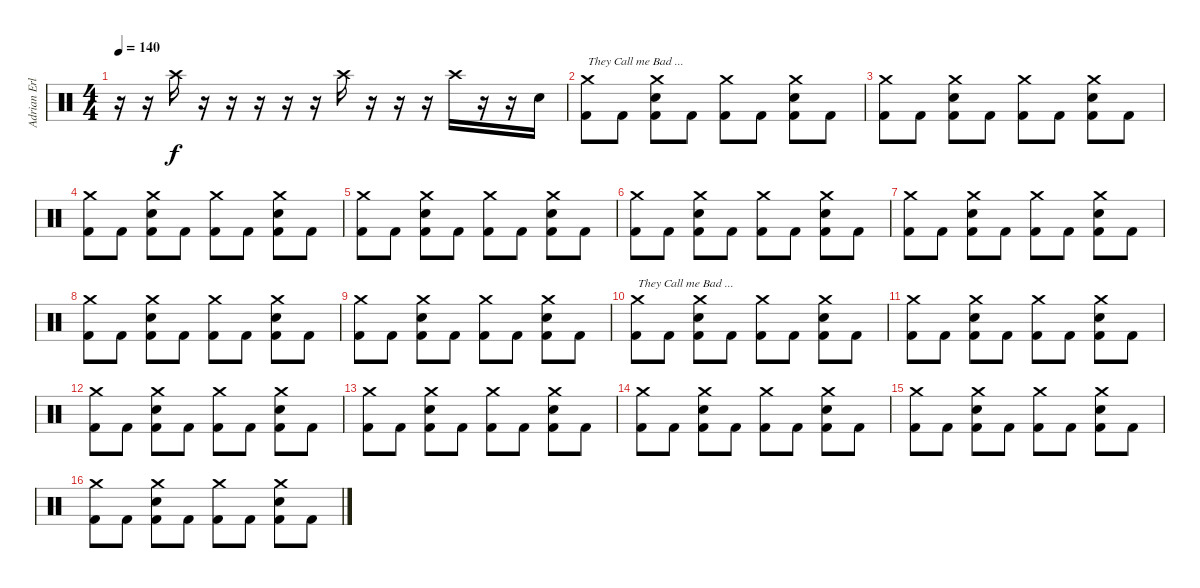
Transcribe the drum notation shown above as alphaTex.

\track ("Adrian Erlandsson" "Adrian Erl") {instrument percussion}
\staff {score}
\articulation defaults
\ts (4 4)
\tempo 140
\clef neutral
\ks c
r.16{dy f} r.16 "Crash high (hit)".16 r.16 r.16 r.16 r.16 r.16 "Crash high (hit)".16 r.16 r.16 r.16 "Crash high (hit)".16 r.16 r.16 "Electric Snare (hit)".16 |
("Kick (hit) 2" "Crash medium (hit)").8{txt "They Call me Bad ..."} "Kick (hit) 2".8 ("Kick (hit) 2" "Crash medium (hit)" "Electric Snare (hit)").8 "Kick (hit) 2".8 ("Kick (hit) 2" "Crash medium (hit)").8 "Kick (hit) 2".8 ("Kick (hit) 2" "Crash medium (hit)" "Electric Snare (hit)").8 "Kick (hit) 2".8 |
("Kick (hit) 2" "Crash medium (hit)").8 "Kick (hit) 2".8 ("Kick (hit) 2" "Crash medium (hit)" "Electric Snare (hit)").8 "Kick (hit) 2".8 ("Kick (hit) 2" "Crash medium (hit)").8 "Kick (hit) 2".8 ("Kick (hit) 2" "Crash medium (hit)" "Electric Snare (hit)").8 "Kick (hit) 2".8 |
("Kick (hit) 2" "Crash medium (hit)").8 "Kick (hit) 2".8 ("Kick (hit) 2" "Crash medium (hit)" "Electric Snare (hit)").8 "Kick (hit) 2".8 ("Kick (hit) 2" "Crash medium (hit)").8 "Kick (hit) 2".8 ("Kick (hit) 2" "Crash medium (hit)" "Electric Snare (hit)").8 "Kick (hit) 2".8 |
("Kick (hit) 2" "Crash medium (hit)").8 "Kick (hit) 2".8 ("Kick (hit) 2" "Crash medium (hit)" "Electric Snare (hit)").8 "Kick (hit) 2".8 ("Kick (hit) 2" "Crash medium (hit)").8 "Kick (hit) 2".8 ("Kick (hit) 2" "Crash medium (hit)" "Electric Snare (hit)").8 "Kick (hit) 2".8 |
("Kick (hit) 2" "Crash medium (hit)").8 "Kick (hit) 2".8 ("Kick (hit) 2" "Crash medium (hit)" "Electric Snare (hit)").8 "Kick (hit) 2".8 ("Kick (hit) 2" "Crash medium (hit)").8 "Kick (hit) 2".8 ("Kick (hit) 2" "Crash medium (hit)" "Electric Snare (hit)").8 "Kick (hit) 2".8 |
("Kick (hit) 2" "Crash medium (hit)").8 "Kick (hit) 2".8 ("Kick (hit) 2" "Crash medium (hit)" "Electric Snare (hit)").8 "Kick (hit) 2".8 ("Kick (hit) 2" "Crash medium (hit)").8 "Kick (hit) 2".8 ("Kick (hit) 2" "Crash medium (hit)" "Electric Snare (hit)").8 "Kick (hit) 2".8 |
("Kick (hit) 2" "Crash medium (hit)").8 "Kick (hit) 2".8 ("Kick (hit) 2" "Crash medium (hit)" "Electric Snare (hit)").8 "Kick (hit) 2".8 ("Kick (hit) 2" "Crash medium (hit)").8 "Kick (hit) 2".8 ("Kick (hit) 2" "Crash medium (hit)" "Electric Snare (hit)").8 "Kick (hit) 2".8 |
("Kick (hit) 2" "Crash medium (hit)").8 "Kick (hit) 2".8 ("Kick (hit) 2" "Crash medium (hit)" "Electric Snare (hit)").8 "Kick (hit) 2".8 ("Kick (hit) 2" "Crash medium (hit)").8 "Kick (hit) 2".8 ("Kick (hit) 2" "Crash medium (hit)" "Electric Snare (hit)").8 "Kick (hit) 2".8 |
("Kick (hit) 2" "Crash medium (hit)").8{txt "They Call me Bad ..."} "Kick (hit) 2".8 ("Kick (hit) 2" "Crash medium (hit)" "Electric Snare (hit)").8 "Kick (hit) 2".8 ("Kick (hit) 2" "Crash medium (hit)").8 "Kick (hit) 2".8 ("Kick (hit) 2" "Crash medium (hit)" "Electric Snare (hit)").8 "Kick (hit) 2".8 |
("Kick (hit) 2" "Crash medium (hit)").8 "Kick (hit) 2".8 ("Kick (hit) 2" "Crash medium (hit)" "Electric Snare (hit)").8 "Kick (hit) 2".8 ("Kick (hit) 2" "Crash medium (hit)").8 "Kick (hit) 2".8 ("Kick (hit) 2" "Crash medium (hit)" "Electric Snare (hit)").8 "Kick (hit) 2".8 |
("Kick (hit) 2" "Crash medium (hit)").8 "Kick (hit) 2".8 ("Kick (hit) 2" "Crash medium (hit)" "Electric Snare (hit)").8 "Kick (hit) 2".8 ("Kick (hit) 2" "Crash medium (hit)").8 "Kick (hit) 2".8 ("Kick (hit) 2" "Crash medium (hit)" "Electric Snare (hit)").8 "Kick (hit) 2".8 |
("Kick (hit) 2" "Crash medium (hit)").8 "Kick (hit) 2".8 ("Kick (hit) 2" "Crash medium (hit)" "Electric Snare (hit)").8 "Kick (hit) 2".8 ("Kick (hit) 2" "Crash medium (hit)").8 "Kick (hit) 2".8 ("Kick (hit) 2" "Crash medium (hit)" "Electric Snare (hit)").8 "Kick (hit) 2".8 |
("Kick (hit) 2" "Crash medium (hit)").8 "Kick (hit) 2".8 ("Kick (hit) 2" "Crash medium (hit)" "Electric Snare (hit)").8 "Kick (hit) 2".8 ("Kick (hit) 2" "Crash medium (hit)").8 "Kick (hit) 2".8 ("Kick (hit) 2" "Crash medium (hit)" "Electric Snare (hit)").8 "Kick (hit) 2".8 |
("Kick (hit) 2" "Crash medium (hit)").8 "Kick (hit) 2".8 ("Kick (hit) 2" "Crash medium (hit)" "Electric Snare (hit)").8 "Kick (hit) 2".8 ("Kick (hit) 2" "Crash medium (hit)").8 "Kick (hit) 2".8 ("Kick (hit) 2" "Crash medium (hit)" "Electric Snare (hit)").8 "Kick (hit) 2".8 |
("Kick (hit) 2" "Crash medium (hit)").8 "Kick (hit) 2".8 ("Kick (hit) 2" "Crash medium (hit)" "Electric Snare (hit)").8 "Kick (hit) 2".8 ("Kick (hit) 2" "Crash medium (hit)").8 "Kick (hit) 2".8 ("Kick (hit) 2" "Crash medium (hit)" "Electric Snare (hit)").8 "Kick (hit) 2".8
